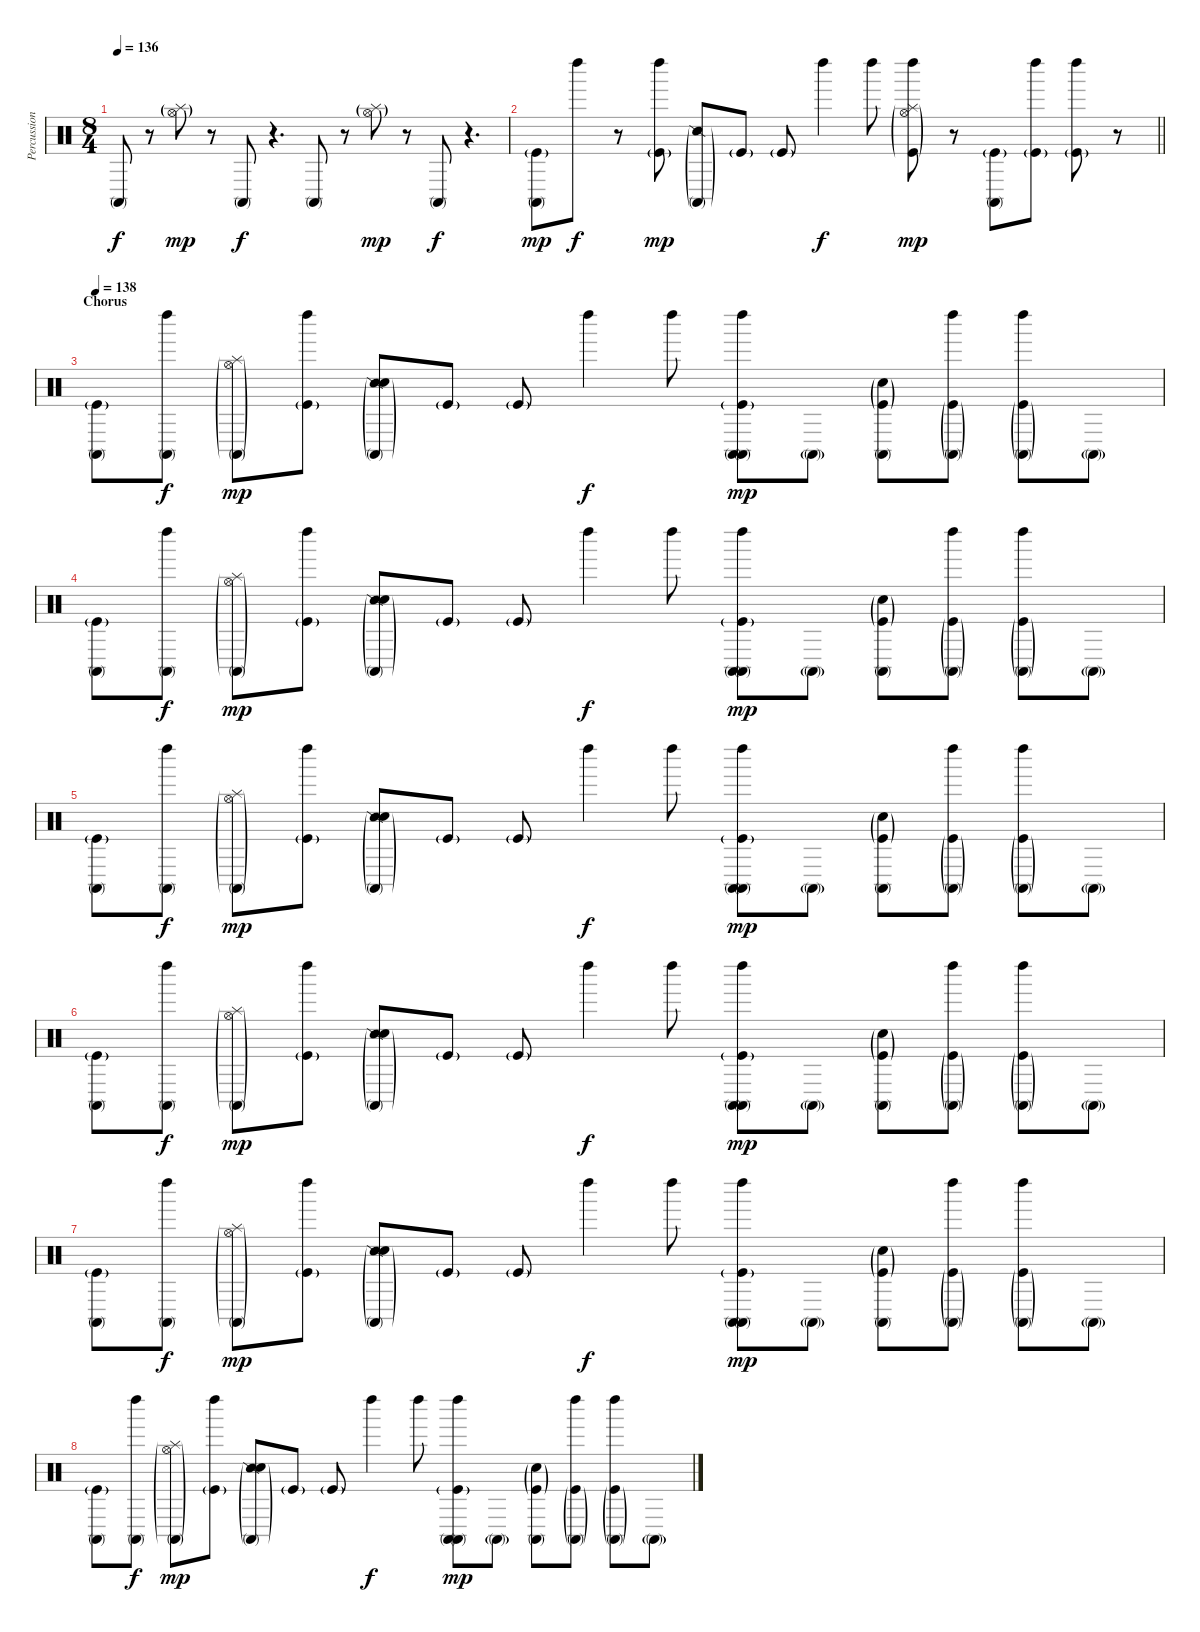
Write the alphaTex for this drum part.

\track ("Percussions" "Percussion") {instrument percussion}
\staff {score}
\articulation defaults
\ts (8 4)
\tempo 136
\clef neutral
\ks c "Conga high (mute)".8{dy f}
r.8 ("Splash (hit)"{g} "Hi-Hat (open)"{g}).8{dy mp} r.8 "Conga high (mute)".8{dy f} r.4{d} "Conga high (mute)".8 r.8 ("Splash (hit)"{g} "Hi-Hat (open)"{g}).8{dy mp} r.8 "Conga high (mute)".8{dy f} r.4{d} |
\barLineRight lightlight
("Conga high (mute)" "Kick (hit)"{g}).8{dy mp} "Left Maraca (hit)".8{dy f} r.8 ("Kick (hit)"{g} "Left Maraca (hit)").8{dy mp} ("Snare (side stick) 2"{g} "Conga high (mute)"{g}).8 "Kick (hit)"{g}.8 "Kick (hit)"{g}.8 "Left Maraca (hit)".4{dy f} "Left Maraca (hit)".8 ("Splash (hit)"{g} "Hi-Hat (open)"{g} "Kick (hit)"{g} "Left Maraca (hit)").8{dy mp} r.8 ("Conga high (mute)" "Kick (hit)"{g}).8 ("Kick (hit)"{g} "Left Maraca (hit)").8 ("Kick (hit)"{g} "Left Maraca (hit)").8 r.8 |
\section ("" "Chorus")
\tempo 138
("Conga high (mute)" "Kick (hit)"{g}).8 ("Conga high (mute)" "Left Maraca (hit)").8{dy f} ("Splash (hit)"{g} "Hi-Hat (open)"{g} "Conga high (mute)"{g}).8{dy mp} ("Kick (hit)"{g} "Left Maraca (hit)").8 ("Snare (side stick) 2"{g} "Electric Snare (hit)"{g} "Conga high (mute)"{g}).8 "Kick (hit)"{g}.8 "Kick (hit)"{g}.8 "Left Maraca (hit)".4{dy f} "Left Maraca (hit)".8 ("Conga high (mute)" "Conga high (mute)" "Kick (hit)"{g} "Left Maraca (hit)").8{dy mp} "Conga high (mute)"{g}.8 ("Electric Snare (hit)"{g} "Conga high (mute)" "Kick (hit)"{g}).8 ("Conga high (mute)"{g} "Kick (hit)"{g} "Left Maraca (hit)").8 ("Conga high (mute)"{g} "Kick (hit)"{g} "Left Maraca (hit)").8 "Conga high (mute)"{g}.8 |
("Conga high (mute)" "Kick (hit)"{g}).8 ("Conga high (mute)" "Left Maraca (hit)").8{dy f} ("Splash (hit)"{g} "Hi-Hat (open)"{g} "Conga high (mute)"{g}).8{dy mp} ("Kick (hit)"{g} "Left Maraca (hit)").8 ("Snare (side stick) 2"{g} "Electric Snare (hit)"{g} "Conga high (mute)"{g}).8 "Kick (hit)"{g}.8 "Kick (hit)"{g}.8 "Left Maraca (hit)".4{dy f} "Left Maraca (hit)".8 ("Conga high (mute)" "Conga high (mute)" "Kick (hit)"{g} "Left Maraca (hit)").8{dy mp} "Conga high (mute)"{g}.8 ("Electric Snare (hit)"{g} "Conga high (mute)" "Kick (hit)"{g}).8 ("Conga high (mute)"{g} "Kick (hit)"{g} "Left Maraca (hit)").8 ("Conga high (mute)"{g} "Kick (hit)"{g} "Left Maraca (hit)").8 "Conga high (mute)"{g}.8 |
("Conga high (mute)" "Kick (hit)"{g}).8 ("Conga high (mute)" "Left Maraca (hit)").8{dy f} ("Splash (hit)"{g} "Hi-Hat (open)"{g} "Conga high (mute)"{g}).8{dy mp} ("Kick (hit)"{g} "Left Maraca (hit)").8 ("Snare (side stick) 2"{g} "Electric Snare (hit)"{g} "Conga high (mute)"{g}).8 "Kick (hit)"{g}.8 "Kick (hit)"{g}.8 "Left Maraca (hit)".4{dy f} "Left Maraca (hit)".8 ("Conga high (mute)" "Conga high (mute)" "Kick (hit)"{g} "Left Maraca (hit)").8{dy mp} "Conga high (mute)"{g}.8 ("Electric Snare (hit)"{g} "Conga high (mute)" "Kick (hit)"{g}).8 ("Conga high (mute)"{g} "Kick (hit)"{g} "Left Maraca (hit)").8 ("Conga high (mute)"{g} "Kick (hit)"{g} "Left Maraca (hit)").8 "Conga high (mute)"{g}.8 |
("Conga high (mute)" "Kick (hit)"{g}).8 ("Conga high (mute)" "Left Maraca (hit)").8{dy f} ("Splash (hit)"{g} "Hi-Hat (open)"{g} "Conga high (mute)"{g}).8{dy mp} ("Kick (hit)"{g} "Left Maraca (hit)").8 ("Snare (side stick) 2"{g} "Electric Snare (hit)"{g} "Conga high (mute)"{g}).8 "Kick (hit)"{g}.8 "Kick (hit)"{g}.8 "Left Maraca (hit)".4{dy f} "Left Maraca (hit)".8 ("Conga high (mute)" "Conga high (mute)" "Kick (hit)"{g} "Left Maraca (hit)").8{dy mp} "Conga high (mute)"{g}.8 ("Electric Snare (hit)"{g} "Conga high (mute)" "Kick (hit)"{g}).8 ("Conga high (mute)"{g} "Kick (hit)"{g} "Left Maraca (hit)").8 ("Conga high (mute)"{g} "Kick (hit)"{g} "Left Maraca (hit)").8 "Conga high (mute)"{g}.8 |
("Conga high (mute)" "Kick (hit)"{g}).8 ("Conga high (mute)" "Left Maraca (hit)").8{dy f} ("Splash (hit)"{g} "Hi-Hat (open)"{g} "Conga high (mute)"{g}).8{dy mp} ("Kick (hit)"{g} "Left Maraca (hit)").8 ("Snare (side stick) 2"{g} "Electric Snare (hit)"{g} "Conga high (mute)"{g}).8 "Kick (hit)"{g}.8 "Kick (hit)"{g}.8 "Left Maraca (hit)".4{dy f} "Left Maraca (hit)".8 ("Conga high (mute)" "Conga high (mute)" "Kick (hit)"{g} "Left Maraca (hit)").8{dy mp} "Conga high (mute)"{g}.8 ("Electric Snare (hit)"{g} "Conga high (mute)" "Kick (hit)"{g}).8 ("Conga high (mute)"{g} "Kick (hit)"{g} "Left Maraca (hit)").8 ("Conga high (mute)"{g} "Kick (hit)"{g} "Left Maraca (hit)").8 "Conga high (mute)"{g}.8 |
("Conga high (mute)" "Kick (hit)"{g}).8 ("Conga high (mute)" "Left Maraca (hit)").8{dy f} ("Splash (hit)"{g} "Hi-Hat (open)"{g} "Conga high (mute)"{g}).8{dy mp} ("Kick (hit)"{g} "Left Maraca (hit)").8 ("Snare (side stick) 2"{g} "Electric Snare (hit)"{g} "Conga high (mute)"{g}).8 "Kick (hit)"{g}.8 "Kick (hit)"{g}.8 "Left Maraca (hit)".4{dy f} "Left Maraca (hit)".8 ("Conga high (mute)" "Conga high (mute)" "Kick (hit)"{g} "Left Maraca (hit)").8{dy mp} "Conga high (mute)"{g}.8 ("Electric Snare (hit)"{g} "Conga high (mute)" "Kick (hit)"{g}).8 ("Conga high (mute)"{g} "Kick (hit)"{g} "Left Maraca (hit)").8 ("Conga high (mute)"{g} "Kick (hit)"{g} "Left Maraca (hit)").8 "Conga high (mute)"{g}.8
